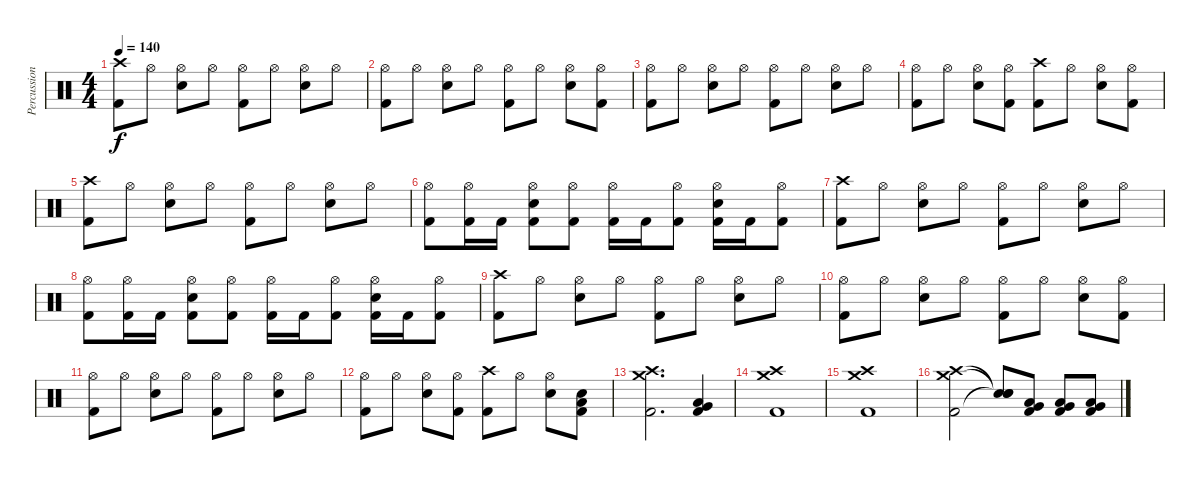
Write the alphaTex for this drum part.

\track ("Percussion" "Percussion") {instrument percussion}
\staff {score}
\articulation defaults
\ts (4 4)
\tempo 140
\clef neutral
\ks c
("Crash high (hit)" "Kick (hit) 2").8{dy f} "Hi-Hat (open)".8 ("Hi-Hat (open)" "Electric Snare (hit)").8 "Hi-Hat (open)".8 ("Hi-Hat (open)" "Kick (hit) 2").8 "Hi-Hat (open)".8 ("Hi-Hat (open)" "Electric Snare (hit)").8 "Hi-Hat (open)".8 |
("Hi-Hat (open)" "Kick (hit) 2").8 "Hi-Hat (open)".8 ("Hi-Hat (open)" "Electric Snare (hit)").8 "Hi-Hat (open)".8 ("Hi-Hat (open)" "Kick (hit) 2").8 "Hi-Hat (open)".8 ("Hi-Hat (open)" "Electric Snare (hit)").8 ("Hi-Hat (open)" "Kick (hit) 2").8 |
("Hi-Hat (open)" "Kick (hit) 2").8 "Hi-Hat (open)".8 ("Hi-Hat (open)" "Electric Snare (hit)").8 "Hi-Hat (open)".8 ("Hi-Hat (open)" "Kick (hit) 2").8 "Hi-Hat (open)".8 ("Hi-Hat (open)" "Electric Snare (hit)").8 "Hi-Hat (open)".8 |
("Hi-Hat (open)" "Kick (hit) 2").8 "Hi-Hat (open)".8 ("Hi-Hat (open)" "Electric Snare (hit)").8 ("Hi-Hat (open)" "Kick (hit) 2").8 ("Crash high (hit)" "Kick (hit) 2").8 "Hi-Hat (open)".8 ("Hi-Hat (open)" "Electric Snare (hit)").8 ("Hi-Hat (open)" "Kick (hit) 2").8 |
("Crash high (hit)" "Kick (hit) 2").8 "Hi-Hat (open)".8 ("Hi-Hat (open)" "Electric Snare (hit)").8 "Hi-Hat (open)".8 ("Hi-Hat (open)" "Kick (hit) 2").8 "Hi-Hat (open)".8 ("Hi-Hat (open)" "Electric Snare (hit)").8 "Hi-Hat (open)".8 |
("Hi-Hat (open)" "Kick (hit) 2").8 ("Hi-Hat (open)" "Kick (hit) 2").16 "Kick (hit) 2".16 ("Hi-Hat (open)" "Electric Snare (hit)" "Kick (hit) 2").8 ("Hi-Hat (open)" "Kick (hit) 2").8 ("Hi-Hat (open)" "Kick (hit) 2").16 "Kick (hit) 2".16 ("Hi-Hat (open)" "Kick (hit) 2").8 ("Hi-Hat (open)" "Electric Snare (hit)" "Kick (hit) 2").16 "Kick (hit) 2".16 ("Hi-Hat (open)" "Kick (hit) 2").8 |
("Crash high (hit)" "Kick (hit) 2").8 "Hi-Hat (open)".8 ("Hi-Hat (open)" "Electric Snare (hit)").8 "Hi-Hat (open)".8 ("Hi-Hat (open)" "Kick (hit) 2").8 "Hi-Hat (open)".8 ("Hi-Hat (open)" "Electric Snare (hit)").8 "Hi-Hat (open)".8 |
("Hi-Hat (open)" "Kick (hit) 2").8 ("Hi-Hat (open)" "Kick (hit) 2").16 "Kick (hit) 2".16 ("Hi-Hat (open)" "Electric Snare (hit)" "Kick (hit) 2").8 ("Hi-Hat (open)" "Kick (hit) 2").8 ("Hi-Hat (open)" "Kick (hit) 2").16 "Kick (hit) 2".16 ("Hi-Hat (open)" "Kick (hit) 2").8 ("Hi-Hat (open)" "Electric Snare (hit)" "Kick (hit) 2").16 "Kick (hit) 2".16 ("Hi-Hat (open)" "Kick (hit) 2").8 |
("Crash high (hit)" "Kick (hit) 2").8 "Hi-Hat (open)".8 ("Hi-Hat (open)" "Electric Snare (hit)").8 "Hi-Hat (open)".8 ("Hi-Hat (open)" "Kick (hit) 2").8 "Hi-Hat (open)".8 ("Hi-Hat (open)" "Electric Snare (hit)").8 "Hi-Hat (open)".8 |
("Hi-Hat (open)" "Kick (hit) 2").8 "Hi-Hat (open)".8 ("Hi-Hat (open)" "Electric Snare (hit)").8 "Hi-Hat (open)".8 ("Hi-Hat (open)" "Kick (hit) 2").8 "Hi-Hat (open)".8 ("Hi-Hat (open)" "Electric Snare (hit)").8 ("Hi-Hat (open)" "Kick (hit) 2").8 |
("Hi-Hat (open)" "Kick (hit) 2").8 "Hi-Hat (open)".8 ("Hi-Hat (open)" "Electric Snare (hit)").8 "Hi-Hat (open)".8 ("Hi-Hat (open)" "Kick (hit) 2").8 "Hi-Hat (open)".8 ("Hi-Hat (open)" "Electric Snare (hit)").8 "Hi-Hat (open)".8 |
("Hi-Hat (open)" "Kick (hit) 2").8 "Hi-Hat (open)".8 ("Hi-Hat (open)" "Electric Snare (hit)").8 ("Hi-Hat (open)" "Kick (hit) 2").8 ("Crash high (hit)" "Kick (hit) 2").8 "Hi-Hat (open)".8 ("Hi-Hat (open)" "Electric Snare (hit)").8 ("Electric Snare (hit)" "Low Floor Tom (hit)" "Kick (hit) 2").8 |
("Crash medium (hit)" "Crash high (hit)" "Kick (hit) 2").2{d} ("Low Tom (hit)" "Very Low Tom (hit)" "Kick (hit) 2").4 |
("Crash medium (hit)" "Crash high (hit)" "Kick (hit) 2").1 |
("Crash medium (hit)" "Crash high (hit)" "Kick (hit) 2").1 |
("Crash medium (hit)" "Crash high (hit)" "Kick (hit) 2").2 ("Snare (hit)"{t} "Snare (hit)"{t} "Snare (hit)"{t}).8 ("Low Tom (hit)" "Very Low Tom (hit)" "Kick (hit) 2").8 ("Low Tom (hit)" "Very Low Tom (hit)" "Kick (hit) 2").8 ("Low Tom (hit)" "Very Low Tom (hit)" "Kick (hit) 2").8
